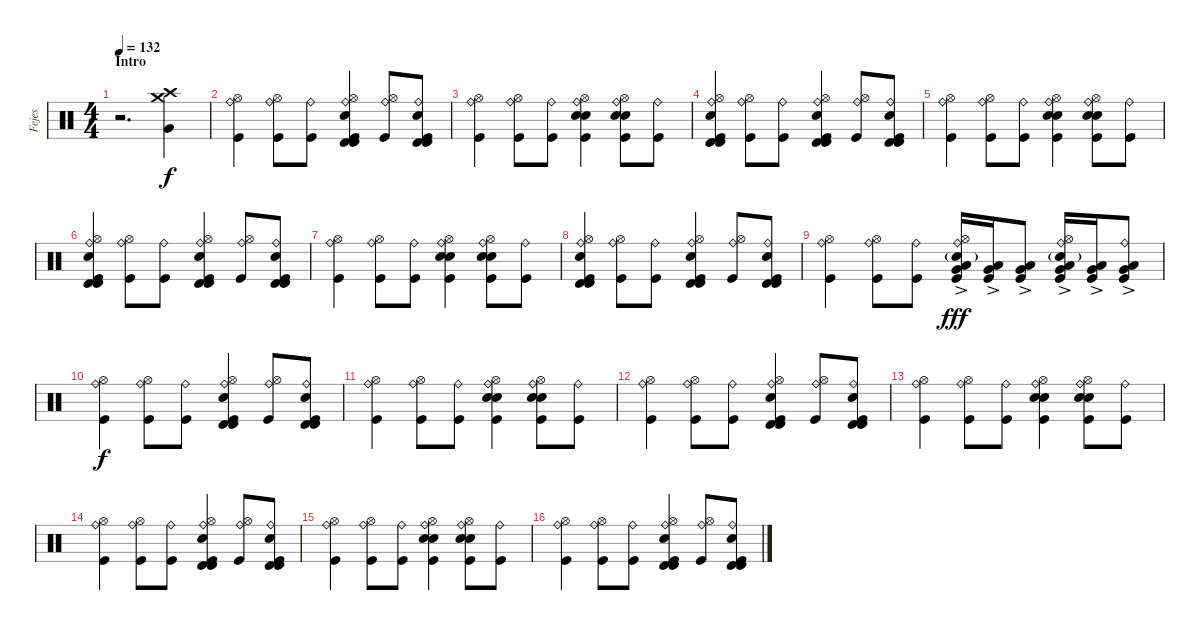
\track ("Fejes" "Fejes") {instrument percussion}
\staff {score}
\articulation defaults
\ts (4 4)
\section ("" "Intro")
\tempo 132
\clef neutral
\ks c
r.2{d dy f} ("Crash high (hit)" "Crash medium (hit)" "Very Low Tom (hit)").4 |
("Ride (bell)" "Hi-Hat (open)" "Kick (hit)").4 ("Ride (bell)" "Hi-Hat (open)" "Kick (hit)").8 ("Ride (bell)" "Kick (hit)").8 ("Ride (bell)" "Hi-Hat (open)" "Snare (hit) 2" "Timbale high (hit)" "Timbale high (hit)" "Kick (hit)").4 ("Ride (bell)" "Hi-Hat (open)" "Kick (hit)").8 ("Ride (bell)" "Snare (hit) 2" "Timbale high (hit)" "Timbale high (hit)" "Kick (hit)").8 |
("Ride (bell)" "Hi-Hat (open)" "Kick (hit)").4 ("Ride (bell)" "Hi-Hat (open)" "Kick (hit)").8 ("Ride (bell)" "Kick (hit)").8 ("Ride (bell)" "Hi-Hat (open)" "Snare (hit) 2" "Snare (hit) 2" "Kick (hit)").4 ("Ride (bell)" "Hi-Hat (open)" "Snare (hit) 2" "Snare (hit) 2" "Kick (hit)").8 ("Ride (bell)" "Kick (hit)").8 |
("Ride (bell)" "Hi-Hat (open)" "Snare (hit) 2" "Timbale high (hit)" "Timbale high (hit)" "Kick (hit)").4 ("Ride (bell)" "Hi-Hat (open)" "Kick (hit)").8 ("Ride (bell)" "Kick (hit)").8 ("Ride (bell)" "Hi-Hat (open)" "Snare (hit) 2" "Timbale high (hit)" "Timbale high (hit)" "Kick (hit)").4 ("Ride (bell)" "Hi-Hat (open)" "Kick (hit)").8 ("Ride (bell)" "Snare (hit) 2" "Timbale high (hit)" "Timbale high (hit)" "Kick (hit)").8 |
("Ride (bell)" "Hi-Hat (open)" "Kick (hit)").4 ("Ride (bell)" "Hi-Hat (open)" "Kick (hit)").8 ("Ride (bell)" "Kick (hit)").8 ("Ride (bell)" "Hi-Hat (open)" "Snare (hit) 2" "Snare (hit) 2" "Kick (hit)").4 ("Ride (bell)" "Hi-Hat (open)" "Snare (hit) 2" "Snare (hit) 2" "Kick (hit)").8 ("Ride (bell)" "Kick (hit)").8 |
("Ride (bell)" "Hi-Hat (open)" "Snare (hit) 2" "Timbale high (hit)" "Timbale high (hit)" "Kick (hit)").4 ("Ride (bell)" "Hi-Hat (open)" "Kick (hit)").8 ("Ride (bell)" "Kick (hit)").8 ("Ride (bell)" "Hi-Hat (open)" "Snare (hit) 2" "Timbale high (hit)" "Timbale high (hit)" "Kick (hit)").4 ("Ride (bell)" "Hi-Hat (open)" "Kick (hit)").8 ("Ride (bell)" "Snare (hit) 2" "Timbale high (hit)" "Timbale high (hit)" "Kick (hit)").8 |
("Ride (bell)" "Hi-Hat (open)" "Kick (hit)").4 ("Ride (bell)" "Hi-Hat (open)" "Kick (hit)").8 ("Ride (bell)" "Kick (hit)").8 ("Ride (bell)" "Hi-Hat (open)" "Snare (hit) 2" "Snare (hit) 2" "Kick (hit)").4 ("Ride (bell)" "Hi-Hat (open)" "Snare (hit) 2" "Snare (hit) 2" "Kick (hit)").8 ("Ride (bell)" "Kick (hit)").8 |
("Ride (bell)" "Hi-Hat (open)" "Snare (hit) 2" "Timbale high (hit)" "Timbale high (hit)" "Kick (hit)").4 ("Ride (bell)" "Hi-Hat (open)" "Kick (hit)").8 ("Ride (bell)" "Kick (hit)").8 ("Ride (bell)" "Hi-Hat (open)" "Snare (hit) 2" "Timbale high (hit)" "Timbale high (hit)" "Kick (hit)").4 ("Ride (bell)" "Hi-Hat (open)" "Kick (hit)").8 ("Ride (bell)" "Snare (hit) 2" "Timbale high (hit)" "Timbale high (hit)" "Kick (hit)").8 |
("Ride (bell)" "Hi-Hat (open)" "Kick (hit)").4 ("Ride (bell)" "Hi-Hat (open)" "Kick (hit)").8 ("Ride (bell)" "Kick (hit)").8 ("Ride (bell)" "Hi-Hat (open)" "Snare (hit) 2"{g} "Low Floor Tom (hit)"{ac} "Very Low Tom (hit)"{ac} "Kick (hit)").16{dy fff} ("Low Floor Tom (hit)"{ac} "Very Low Tom (hit)"{ac} "Kick (hit)").16 ("Low Floor Tom (hit)"{ac} "Very Low Tom (hit)"{ac} "Kick (hit)").8 ("Ride (bell)" "Hi-Hat (open)" "Snare (hit) 2"{g} "Low Floor Tom (hit)"{ac} "Very Low Tom (hit)"{ac} "Kick (hit)").16 ("Low Floor Tom (hit)"{ac} "Very Low Tom (hit)"{ac} "Kick (hit)").16 ("Ride (bell)" "Low Floor Tom (hit)"{ac} "Very Low Tom (hit)"{ac} "Kick (hit)").8 |
("Ride (bell)" "Hi-Hat (open)" "Kick (hit)").4{dy f} ("Ride (bell)" "Hi-Hat (open)" "Kick (hit)").8 ("Ride (bell)" "Kick (hit)").8 ("Ride (bell)" "Hi-Hat (open)" "Snare (hit) 2" "Timbale high (hit)" "Timbale high (hit)" "Kick (hit)").4 ("Ride (bell)" "Hi-Hat (open)" "Kick (hit)").8 ("Ride (bell)" "Snare (hit) 2" "Timbale high (hit)" "Timbale high (hit)" "Kick (hit)").8 |
("Ride (bell)" "Hi-Hat (open)" "Kick (hit)").4 ("Ride (bell)" "Hi-Hat (open)" "Kick (hit)").8 ("Ride (bell)" "Kick (hit)").8 ("Ride (bell)" "Hi-Hat (open)" "Snare (hit) 2" "Snare (hit) 2" "Kick (hit)").4 ("Ride (bell)" "Hi-Hat (open)" "Snare (hit) 2" "Snare (hit) 2" "Kick (hit)").8 ("Ride (bell)" "Kick (hit)").8 |
("Ride (bell)" "Hi-Hat (open)" "Kick (hit)").4 ("Ride (bell)" "Hi-Hat (open)" "Kick (hit)").8 ("Ride (bell)" "Kick (hit)").8 ("Ride (bell)" "Hi-Hat (open)" "Snare (hit) 2" "Timbale high (hit)" "Timbale high (hit)" "Kick (hit)").4 ("Ride (bell)" "Hi-Hat (open)" "Kick (hit)").8 ("Ride (bell)" "Snare (hit) 2" "Timbale high (hit)" "Timbale high (hit)" "Kick (hit)").8 |
("Ride (bell)" "Hi-Hat (open)" "Kick (hit)").4 ("Ride (bell)" "Hi-Hat (open)" "Kick (hit)").8 ("Ride (bell)" "Kick (hit)").8 ("Ride (bell)" "Hi-Hat (open)" "Snare (hit) 2" "Snare (hit) 2" "Kick (hit)").4 ("Ride (bell)" "Hi-Hat (open)" "Snare (hit) 2" "Snare (hit) 2" "Kick (hit)").8 ("Ride (bell)" "Kick (hit)").8 |
("Ride (bell)" "Hi-Hat (open)" "Kick (hit)").4 ("Ride (bell)" "Hi-Hat (open)" "Kick (hit)").8 ("Ride (bell)" "Kick (hit)").8 ("Ride (bell)" "Hi-Hat (open)" "Snare (hit) 2" "Timbale high (hit)" "Timbale high (hit)" "Kick (hit)").4 ("Ride (bell)" "Hi-Hat (open)" "Kick (hit)").8 ("Ride (bell)" "Snare (hit) 2" "Timbale high (hit)" "Timbale high (hit)" "Kick (hit)").8 |
("Ride (bell)" "Hi-Hat (open)" "Kick (hit)").4 ("Ride (bell)" "Hi-Hat (open)" "Kick (hit)").8 ("Ride (bell)" "Kick (hit)").8 ("Ride (bell)" "Hi-Hat (open)" "Snare (hit) 2" "Snare (hit) 2" "Kick (hit)").4 ("Ride (bell)" "Hi-Hat (open)" "Snare (hit) 2" "Snare (hit) 2" "Kick (hit)").8 ("Ride (bell)" "Kick (hit)").8 |
("Ride (bell)" "Hi-Hat (open)" "Kick (hit)").4 ("Ride (bell)" "Hi-Hat (open)" "Kick (hit)").8 ("Ride (bell)" "Kick (hit)").8 ("Ride (bell)" "Hi-Hat (open)" "Snare (hit) 2" "Timbale high (hit)" "Timbale high (hit)" "Kick (hit)").4 ("Ride (bell)" "Hi-Hat (open)" "Kick (hit)").8 ("Ride (bell)" "Snare (hit) 2" "Timbale high (hit)" "Timbale high (hit)" "Kick (hit)").8
